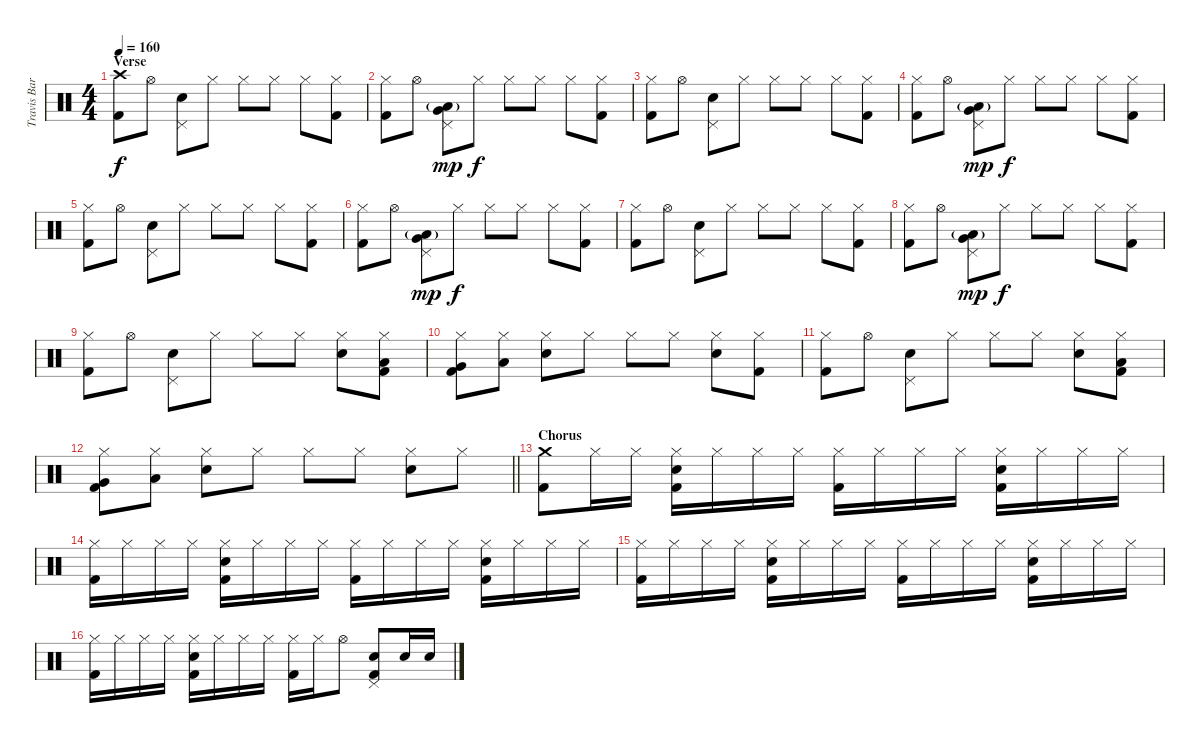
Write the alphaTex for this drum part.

\track ("Travis Barker - Drums" "Travis Bar") {instrument percussion}
\staff {score}
\articulation defaults
\ts (4 4)
\section ("" "Verse")
\tempo 160
\clef neutral
\ks c
("Crash high (hit)" "Kick (hit) 2").8{dy f} "Hi-Hat (open)".8 ("Pedal Hi-Hat (hit)" "Electric Snare (hit)").8 "Hi-Hat (closed)".8 "Hi-Hat (closed)".8 "Hi-Hat (closed)".8 "Hi-Hat (closed)".8 ("Hi-Hat (closed)" "Kick (hit) 2").8 |
("Hi-Hat (closed)" "Kick (hit) 2").8 "Hi-Hat (open)".8 ("Pedal Hi-Hat (hit)" "Low Tom (hit)"{g} "Very Low Tom (hit)").8{dy mp} "Hi-Hat (closed)".8{dy f} "Hi-Hat (closed)".8 "Hi-Hat (closed)".8 "Hi-Hat (closed)".8 ("Hi-Hat (closed)" "Kick (hit) 2").8 |
("Hi-Hat (closed)" "Kick (hit) 2").8 "Hi-Hat (open)".8 ("Pedal Hi-Hat (hit)" "Electric Snare (hit)").8 "Hi-Hat (closed)".8 "Hi-Hat (closed)".8 "Hi-Hat (closed)".8 "Hi-Hat (closed)".8 ("Hi-Hat (closed)" "Kick (hit) 2").8 |
("Hi-Hat (closed)" "Kick (hit) 2").8 "Hi-Hat (open)".8 ("Pedal Hi-Hat (hit)" "Low Tom (hit)"{g} "Very Low Tom (hit)").8{dy mp} "Hi-Hat (closed)".8{dy f} "Hi-Hat (closed)".8 "Hi-Hat (closed)".8 "Hi-Hat (closed)".8 ("Hi-Hat (closed)" "Kick (hit) 2").8 |
("Hi-Hat (closed)" "Kick (hit) 2").8 "Hi-Hat (open)".8 ("Pedal Hi-Hat (hit)" "Electric Snare (hit)").8 "Hi-Hat (closed)".8 "Hi-Hat (closed)".8 "Hi-Hat (closed)".8 "Hi-Hat (closed)".8 ("Hi-Hat (closed)" "Kick (hit) 2").8 |
("Hi-Hat (closed)" "Kick (hit) 2").8 "Hi-Hat (open)".8 ("Pedal Hi-Hat (hit)" "Low Tom (hit)"{g} "Very Low Tom (hit)").8{dy mp} "Hi-Hat (closed)".8{dy f} "Hi-Hat (closed)".8 "Hi-Hat (closed)".8 "Hi-Hat (closed)".8 ("Hi-Hat (closed)" "Kick (hit) 2").8 |
("Hi-Hat (closed)" "Kick (hit) 2").8 "Hi-Hat (open)".8 ("Pedal Hi-Hat (hit)" "Electric Snare (hit)").8 "Hi-Hat (closed)".8 "Hi-Hat (closed)".8 "Hi-Hat (closed)".8 "Hi-Hat (closed)".8 ("Hi-Hat (closed)" "Kick (hit) 2").8 |
("Hi-Hat (closed)" "Kick (hit) 2").8 "Hi-Hat (open)".8 ("Pedal Hi-Hat (hit)" "Low Tom (hit)"{g} "Very Low Tom (hit)").8{dy mp} "Hi-Hat (closed)".8{dy f} "Hi-Hat (closed)".8 "Hi-Hat (closed)".8 "Hi-Hat (closed)".8 ("Hi-Hat (closed)" "Kick (hit) 2").8 |
("Hi-Hat (closed)" "Kick (hit) 2").8 "Hi-Hat (open)".8 ("Pedal Hi-Hat (hit)" "Electric Snare (hit)").8 "Hi-Hat (closed)".8 "Hi-Hat (closed)".8 "Hi-Hat (closed)".8 ("Hi-Hat (closed)" "Electric Snare (hit)").8 ("Hi-Hat (closed)" "Low Tom (hit)" "Kick (hit) 2").8 |
("Hi-Hat (closed)" "Very Low Tom (hit)" "Kick (hit) 2").8 ("Hi-Hat (closed)" "Low Floor Tom (hit)").8 ("Hi-Hat (closed)" "Electric Snare (hit)").8 "Hi-Hat (closed)".8 "Hi-Hat (closed)".8 "Hi-Hat (closed)".8 ("Hi-Hat (closed)" "Electric Snare (hit)").8 ("Hi-Hat (closed)" "Kick (hit) 2").8 |
("Hi-Hat (closed)" "Kick (hit) 2").8 "Hi-Hat (open)".8 ("Pedal Hi-Hat (hit)" "Electric Snare (hit)").8 "Hi-Hat (closed)".8 "Hi-Hat (closed)".8 "Hi-Hat (closed)".8 ("Hi-Hat (closed)" "Electric Snare (hit)").8 ("Hi-Hat (closed)" "Low Tom (hit)" "Kick (hit) 2").8 |
\barLineRight lightlight
("Hi-Hat (closed)" "Very Low Tom (hit)" "Kick (hit) 2").8 ("Hi-Hat (closed)" "Low Floor Tom (hit)").8 ("Hi-Hat (closed)" "Electric Snare (hit)").8 "Hi-Hat (closed)".8 "Hi-Hat (closed)".8 "Hi-Hat (closed)".8 ("Hi-Hat (closed)" "Electric Snare (hit)").8 "Hi-Hat (closed)".8 |
\section ("" "Chorus")
("Crash medium (hit)" "Kick (hit) 2").8 "Hi-Hat (closed)".16 "Hi-Hat (closed)".16 ("Hi-Hat (closed)" "Electric Snare (hit)" "Kick (hit) 2").16 "Hi-Hat (closed)".16 "Hi-Hat (closed)".16 "Hi-Hat (closed)".16 ("Hi-Hat (closed)" "Kick (hit) 2").16 "Hi-Hat (closed)".16 "Hi-Hat (closed)".16 "Hi-Hat (closed)".16 ("Hi-Hat (closed)" "Electric Snare (hit)" "Kick (hit) 2").16 "Hi-Hat (closed)".16 "Hi-Hat (closed)".16 "Hi-Hat (closed)".16 |
("Hi-Hat (closed)" "Kick (hit) 2").16 "Hi-Hat (closed)".16 "Hi-Hat (closed)".16 "Hi-Hat (closed)".16 ("Hi-Hat (closed)" "Electric Snare (hit)" "Kick (hit) 2").16 "Hi-Hat (closed)".16 "Hi-Hat (closed)".16 "Hi-Hat (closed)".16 ("Hi-Hat (closed)" "Kick (hit) 2").16 "Hi-Hat (closed)".16 "Hi-Hat (closed)".16 "Hi-Hat (closed)".16 ("Hi-Hat (closed)" "Electric Snare (hit)" "Kick (hit) 2").16 "Hi-Hat (closed)".16 "Hi-Hat (closed)".16 "Hi-Hat (closed)".16 |
("Hi-Hat (closed)" "Kick (hit) 2").16 "Hi-Hat (closed)".16 "Hi-Hat (closed)".16 "Hi-Hat (closed)".16 ("Hi-Hat (closed)" "Electric Snare (hit)" "Kick (hit) 2").16 "Hi-Hat (closed)".16 "Hi-Hat (closed)".16 "Hi-Hat (closed)".16 ("Hi-Hat (closed)" "Kick (hit) 2").16 "Hi-Hat (closed)".16 "Hi-Hat (closed)".16 "Hi-Hat (closed)".16 ("Hi-Hat (closed)" "Electric Snare (hit)" "Kick (hit) 2").16 "Hi-Hat (closed)".16 "Hi-Hat (closed)".16 "Hi-Hat (closed)".16 |
("Hi-Hat (closed)" "Kick (hit) 2").16 "Hi-Hat (closed)".16 "Hi-Hat (closed)".16 "Hi-Hat (closed)".16 ("Hi-Hat (closed)" "Electric Snare (hit)" "Kick (hit) 2").16 "Hi-Hat (closed)".16 "Hi-Hat (closed)".16 "Hi-Hat (closed)".16 ("Hi-Hat (closed)" "Kick (hit) 2").16 "Hi-Hat (closed)".16 "Hi-Hat (open)".8 ("Pedal Hi-Hat (hit)" "Electric Snare (hit)" "Kick (hit) 2").8 "Electric Snare (hit)".16 "Electric Snare (hit)".16
